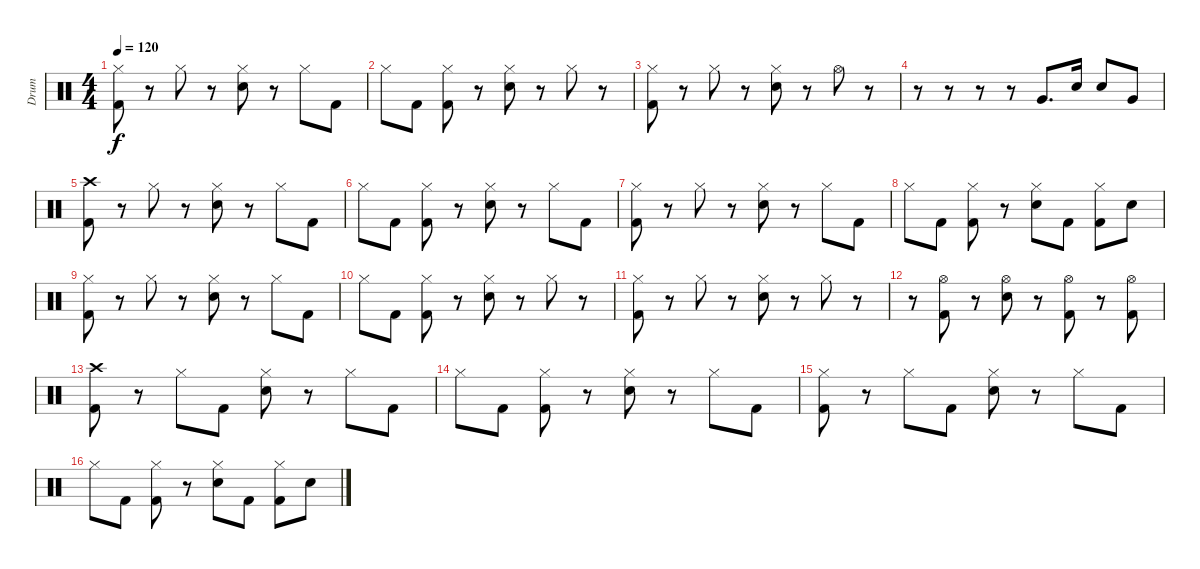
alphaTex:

\track ("Drum" "Drum") {instrument percussion}
\staff {score}
\articulation defaults
\ts (4 4)
\tempo 120
\clef neutral
\ks c
("Hi-Hat (closed)" "Kick (hit) 2").8{dy f} r.8 "Hi-Hat (closed)".8 r.8 ("Hi-Hat (closed)" "Electric Snare (hit)").8 r.8 "Hi-Hat (closed)".8 "Kick (hit) 2".8 |
"Hi-Hat (closed)".8 "Kick (hit) 2".8 ("Hi-Hat (closed)" "Kick (hit) 2").8 r.8 ("Hi-Hat (closed)" "Electric Snare (hit)").8 r.8 "Hi-Hat (closed)".8 r.8 |
("Hi-Hat (closed)" "Kick (hit) 2").8 r.8 "Hi-Hat (closed)".8 r.8 ("Hi-Hat (closed)" "Electric Snare (hit)").8 r.8 "Hi-Hat (open)".8 r.8 |
r.8 r.8 r.8 r.8 "Very Low Tom (hit)".8{d} "Electric Snare (hit)".16 "Electric Snare (hit)".8 "Very Low Tom (hit)".8 |
("Crash high (hit)" "Kick (hit) 2").8 r.8 "Hi-Hat (closed)".8 r.8 ("Hi-Hat (closed)" "Electric Snare (hit)").8 r.8 "Hi-Hat (closed)".8 "Kick (hit) 2".8 |
"Hi-Hat (closed)".8 "Kick (hit) 2".8 ("Hi-Hat (closed)" "Kick (hit) 2").8 r.8 ("Hi-Hat (closed)" "Electric Snare (hit)").8 r.8 "Hi-Hat (closed)".8 "Kick (hit) 2".8 |
("Hi-Hat (closed)" "Kick (hit) 2").8 r.8 "Hi-Hat (closed)".8 r.8 ("Hi-Hat (closed)" "Electric Snare (hit)").8 r.8 "Hi-Hat (closed)".8 "Kick (hit) 2".8 |
"Hi-Hat (closed)".8 "Kick (hit) 2".8 ("Hi-Hat (closed)" "Kick (hit) 2").8 r.8 ("Hi-Hat (closed)" "Electric Snare (hit)").8 "Kick (hit) 2".8 ("Hi-Hat (closed)" "Kick (hit) 2").8 "Electric Snare (hit)".8 |
("Hi-Hat (closed)" "Kick (hit) 2").8 r.8 "Hi-Hat (closed)".8 r.8 ("Hi-Hat (closed)" "Electric Snare (hit)").8 r.8 "Hi-Hat (closed)".8 "Kick (hit) 2".8 |
"Hi-Hat (closed)".8 "Kick (hit) 2".8 ("Hi-Hat (closed)" "Kick (hit) 2").8 r.8 ("Hi-Hat (closed)" "Electric Snare (hit)").8 r.8 "Hi-Hat (closed)".8 r.8 |
("Hi-Hat (closed)" "Kick (hit) 2").8 r.8 "Hi-Hat (closed)".8 r.8 ("Hi-Hat (closed)" "Electric Snare (hit)").8 r.8 "Hi-Hat (closed)".8 r.8 |
r.8 ("Hi-Hat (open)" "Kick (hit) 2").8 r.8 ("Hi-Hat (open)" "Electric Snare (hit)").8 r.8 ("Hi-Hat (open)" "Kick (hit) 2").8 r.8 ("Hi-Hat (open)" "Kick (hit) 2").8 |
("Crash high (hit)" "Kick (hit) 2").8 r.8 "Hi-Hat (closed)".8 "Kick (hit) 2".8 ("Hi-Hat (closed)" "Electric Snare (hit)").8 r.8 "Hi-Hat (closed)".8 "Kick (hit) 2".8 |
"Hi-Hat (closed)".8 "Kick (hit) 2".8 ("Hi-Hat (closed)" "Kick (hit) 2").8 r.8 ("Hi-Hat (closed)" "Electric Snare (hit)").8 r.8 "Hi-Hat (closed)".8 "Kick (hit) 2".8 |
("Hi-Hat (closed)" "Kick (hit) 2").8 r.8 "Hi-Hat (closed)".8 "Kick (hit) 2".8 ("Hi-Hat (closed)" "Electric Snare (hit)").8 r.8 "Hi-Hat (closed)".8 "Kick (hit) 2".8 |
"Hi-Hat (closed)".8 "Kick (hit) 2".8 ("Hi-Hat (closed)" "Kick (hit) 2").8 r.8 ("Hi-Hat (closed)" "Electric Snare (hit)").8 "Kick (hit) 2".8 ("Hi-Hat (closed)" "Kick (hit) 2").8 "Electric Snare (hit)".8
